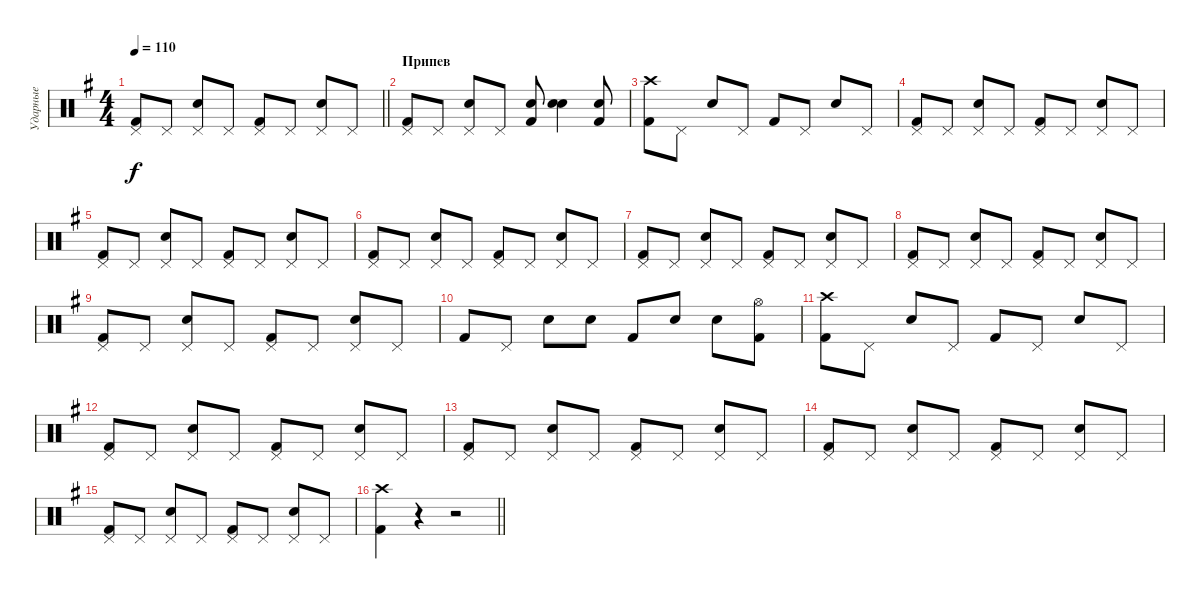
\track ("Ударные" "Ударные") {instrument percussion}
\staff {score}
\articulation defaults
\ts (4 4)
\tempo 110
\clef neutral
\barLineRight lightlight
\ks eminor
("Kick (hit) 2" "Pedal Hi-Hat (hit)").8{dy f} "Pedal Hi-Hat (hit)".8 ("Snare (hit) 2" "Pedal Hi-Hat (hit)").8 "Pedal Hi-Hat (hit)".8 ("Kick (hit) 2" "Pedal Hi-Hat (hit)").8 "Pedal Hi-Hat (hit)".8 ("Snare (hit) 2" "Pedal Hi-Hat (hit)").8 "Pedal Hi-Hat (hit)".8 |
\section ("" "Припев")
("Kick (hit) 2" "Pedal Hi-Hat (hit)").8 "Pedal Hi-Hat (hit)".8 ("Snare (hit) 2" "Pedal Hi-Hat (hit)").8 "Pedal Hi-Hat (hit)".8 ("Kick (hit) 2" "Snare (hit) 2").8 ("Snare (hit) 2" "Snare (hit) 2").4 ("Kick (hit) 2" "Snare (hit) 2").8 |
("Kick (hit) 2" "Crash high (hit)").8 "Pedal Hi-Hat (hit)".8 "Snare (hit) 2".8 "Pedal Hi-Hat (hit)".8 "Kick (hit) 2".8 "Pedal Hi-Hat (hit)".8 "Snare (hit) 2".8 "Pedal Hi-Hat (hit)".8 |
("Kick (hit) 2" "Pedal Hi-Hat (hit)").8 "Pedal Hi-Hat (hit)".8 ("Snare (hit) 2" "Pedal Hi-Hat (hit)").8 "Pedal Hi-Hat (hit)".8 ("Kick (hit) 2" "Pedal Hi-Hat (hit)").8 "Pedal Hi-Hat (hit)".8 ("Snare (hit) 2" "Pedal Hi-Hat (hit)").8 "Pedal Hi-Hat (hit)".8 |
("Kick (hit) 2" "Pedal Hi-Hat (hit)").8 "Pedal Hi-Hat (hit)".8 ("Snare (hit) 2" "Pedal Hi-Hat (hit)").8 "Pedal Hi-Hat (hit)".8 ("Kick (hit) 2" "Pedal Hi-Hat (hit)").8 "Pedal Hi-Hat (hit)".8 ("Snare (hit) 2" "Pedal Hi-Hat (hit)").8 "Pedal Hi-Hat (hit)".8 |
("Kick (hit) 2" "Pedal Hi-Hat (hit)").8 "Pedal Hi-Hat (hit)".8 ("Snare (hit) 2" "Pedal Hi-Hat (hit)").8 "Pedal Hi-Hat (hit)".8 ("Kick (hit) 2" "Pedal Hi-Hat (hit)").8 "Pedal Hi-Hat (hit)".8 ("Snare (hit) 2" "Pedal Hi-Hat (hit)").8 "Pedal Hi-Hat (hit)".8 |
("Kick (hit) 2" "Pedal Hi-Hat (hit)").8 "Pedal Hi-Hat (hit)".8 ("Snare (hit) 2" "Pedal Hi-Hat (hit)").8 "Pedal Hi-Hat (hit)".8 ("Kick (hit) 2" "Pedal Hi-Hat (hit)").8 "Pedal Hi-Hat (hit)".8 ("Snare (hit) 2" "Pedal Hi-Hat (hit)").8 "Pedal Hi-Hat (hit)".8 |
("Kick (hit) 2" "Pedal Hi-Hat (hit)").8 "Pedal Hi-Hat (hit)".8 ("Snare (hit) 2" "Pedal Hi-Hat (hit)").8 "Pedal Hi-Hat (hit)".8 ("Kick (hit) 2" "Pedal Hi-Hat (hit)").8 "Pedal Hi-Hat (hit)".8 ("Snare (hit) 2" "Pedal Hi-Hat (hit)").8 "Pedal Hi-Hat (hit)".8 |
("Kick (hit) 2" "Pedal Hi-Hat (hit)").8 "Pedal Hi-Hat (hit)".8 ("Snare (hit) 2" "Pedal Hi-Hat (hit)").8 "Pedal Hi-Hat (hit)".8 ("Kick (hit) 2" "Pedal Hi-Hat (hit)").8 "Pedal Hi-Hat (hit)".8 ("Snare (hit) 2" "Pedal Hi-Hat (hit)").8 "Pedal Hi-Hat (hit)".8 |
"Kick (hit) 2".8 "Pedal Hi-Hat (hit)".8 "Snare (hit) 2".8 "Snare (hit) 2".8 "Kick (hit) 2".8 "Snare (hit) 2".8 "Snare (hit) 2".8 ("Hi-Hat (open)" "Kick (hit) 2").8 |
("Crash high (hit)" "Kick (hit) 2").8 "Pedal Hi-Hat (hit)".8 "Snare (hit) 2".8 "Pedal Hi-Hat (hit)".8 "Kick (hit) 2".8 "Pedal Hi-Hat (hit)".8 "Snare (hit) 2".8 "Pedal Hi-Hat (hit)".8 |
("Kick (hit) 2" "Pedal Hi-Hat (hit)").8 "Pedal Hi-Hat (hit)".8 ("Snare (hit) 2" "Pedal Hi-Hat (hit)").8 "Pedal Hi-Hat (hit)".8 ("Kick (hit) 2" "Pedal Hi-Hat (hit)").8 "Pedal Hi-Hat (hit)".8 ("Snare (hit) 2" "Pedal Hi-Hat (hit)").8 "Pedal Hi-Hat (hit)".8 |
("Kick (hit) 2" "Pedal Hi-Hat (hit)").8 "Pedal Hi-Hat (hit)".8 ("Snare (hit) 2" "Pedal Hi-Hat (hit)").8 "Pedal Hi-Hat (hit)".8 ("Kick (hit) 2" "Pedal Hi-Hat (hit)").8 "Pedal Hi-Hat (hit)".8 ("Snare (hit) 2" "Pedal Hi-Hat (hit)").8 "Pedal Hi-Hat (hit)".8 |
("Kick (hit) 2" "Pedal Hi-Hat (hit)").8 "Pedal Hi-Hat (hit)".8 ("Snare (hit) 2" "Pedal Hi-Hat (hit)").8 "Pedal Hi-Hat (hit)".8 ("Kick (hit) 2" "Pedal Hi-Hat (hit)").8 "Pedal Hi-Hat (hit)".8 ("Snare (hit) 2" "Pedal Hi-Hat (hit)").8 "Pedal Hi-Hat (hit)".8 |
("Kick (hit) 2" "Pedal Hi-Hat (hit)").8 "Pedal Hi-Hat (hit)".8 ("Snare (hit) 2" "Pedal Hi-Hat (hit)").8 "Pedal Hi-Hat (hit)".8 ("Kick (hit) 2" "Pedal Hi-Hat (hit)").8 "Pedal Hi-Hat (hit)".8 ("Snare (hit) 2" "Pedal Hi-Hat (hit)").8 "Pedal Hi-Hat (hit)".8 |
\barLineRight lightlight
("Crash high (hit)" "Kick (hit) 2").4 r.4 r.2
